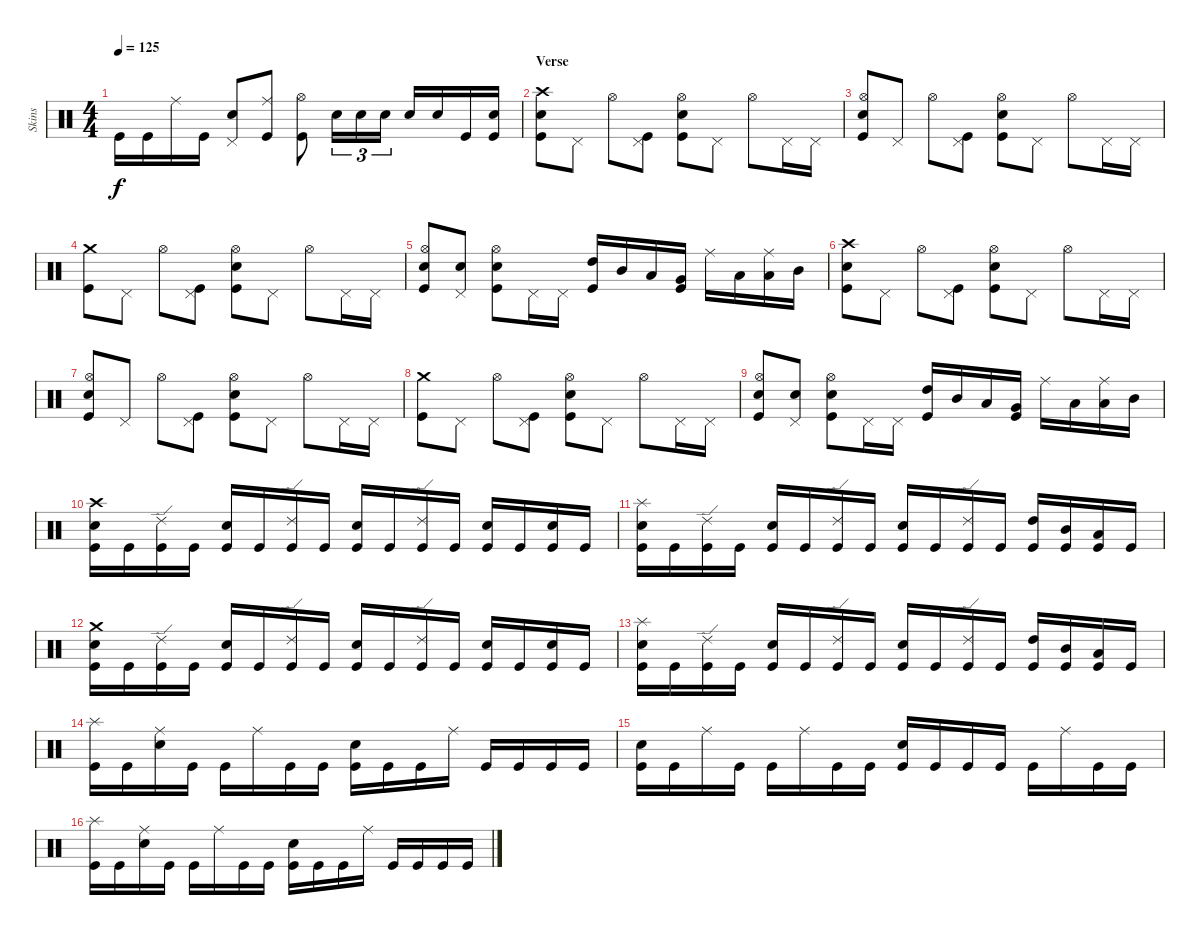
\track ("Skins" "Skins") {instrument percussion}
\staff {score}
\articulation defaults
\ts (4 4)
\tempo 125
\clef neutral
\ks c "Kick (hit)".16{dy f} "Kick (hit)".16 "Ride (middle)".16 "Kick (hit)".16
("Pedal Hi-Hat (hit)" "Electric Snare (hit)").8 ("Ride (middle)" "Kick (hit)").8 ("Hi-Hat (open)" "Kick (hit)").8 "Electric Snare (hit)".16{tu (3 2)} "Electric Snare (hit)".16{tu (3 2)} "Electric Snare (hit)".16{tu (3 2)} "Snare (hit) 2".16 "Snare (hit) 2".16 "Kick (hit)".16 ("Snare (hit) 2" "Kick (hit)").16 |
\section ("" "Verse")
("Crash high (hit)" "Snare (hit) 2" "Kick (hit)").8 "Pedal Hi-Hat (hit)".8 "Hi-Hat (open)".8 ("Pedal Hi-Hat (hit)" "Kick (hit)").8 ("Hi-Hat (open)" "Electric Snare (hit)" "Kick (hit)").8 "Pedal Hi-Hat (hit)".8 "Hi-Hat (open)".8 "Pedal Hi-Hat (hit)".16 "Pedal Hi-Hat (hit)".16 |
("Hi-Hat (open)" "Snare (hit) 2" "Kick (hit)").8 "Pedal Hi-Hat (hit)".8 "Hi-Hat (open)".8 ("Pedal Hi-Hat (hit)" "Kick (hit)").8 ("Hi-Hat (open)" "Electric Snare (hit)" "Kick (hit)").8 "Pedal Hi-Hat (hit)".8 "Hi-Hat (open)".8 "Pedal Hi-Hat (hit)".16 "Pedal Hi-Hat (hit)".16 |
("Crash medium (hit)" "Kick (hit)").8 "Pedal Hi-Hat (hit)".8 "Hi-Hat (open)".8 ("Pedal Hi-Hat (hit)" "Kick (hit)").8 ("Hi-Hat (open)" "Electric Snare (hit)" "Kick (hit)").8 "Pedal Hi-Hat (hit)".8 "Hi-Hat (open)".8 "Pedal Hi-Hat (hit)".16 "Pedal Hi-Hat (hit)".16 |
("Hi-Hat (open)" "Snare (hit) 2" "Kick (hit)").8 ("Pedal Hi-Hat (hit)" "Snare (hit) 2").8 ("Hi-Hat (open)" "Electric Snare (hit)" "Kick (hit)").8 "Pedal Hi-Hat (hit)".16 "Pedal Hi-Hat (hit)".16 ("High Tom (hit)" "Kick (hit)").16 "Mid Tom (hit)".16 "Low Tom (hit)".16 ("Very Low Tom (hit)" "Kick (hit)").16 "Ride (middle)".16 "Low Floor Tom (hit)".16 ("Ride (middle)" "Low Tom (hit)").16 "Mid Tom (hit)".16 |
("Crash high (hit)" "Snare (hit) 2" "Kick (hit)").8 "Pedal Hi-Hat (hit)".8 "Hi-Hat (open)".8 ("Pedal Hi-Hat (hit)" "Kick (hit)").8 ("Hi-Hat (open)" "Electric Snare (hit)" "Kick (hit)").8 "Pedal Hi-Hat (hit)".8 "Hi-Hat (open)".8 "Pedal Hi-Hat (hit)".16 "Pedal Hi-Hat (hit)".16 |
("Hi-Hat (open)" "Snare (hit) 2" "Kick (hit)").8 "Pedal Hi-Hat (hit)".8 "Hi-Hat (open)".8 ("Pedal Hi-Hat (hit)" "Kick (hit)").8 ("Hi-Hat (open)" "Electric Snare (hit)" "Kick (hit)").8 "Pedal Hi-Hat (hit)".8 "Hi-Hat (open)".8 "Pedal Hi-Hat (hit)".16 "Pedal Hi-Hat (hit)".16 |
("Crash medium (hit)" "Kick (hit)").8 "Pedal Hi-Hat (hit)".8 "Hi-Hat (open)".8 ("Pedal Hi-Hat (hit)" "Kick (hit)").8 ("Hi-Hat (open)" "Electric Snare (hit)" "Kick (hit)").8 "Pedal Hi-Hat (hit)".8 "Hi-Hat (open)".8 "Pedal Hi-Hat (hit)".16 "Pedal Hi-Hat (hit)".16 |
("Hi-Hat (open)" "Snare (hit) 2" "Kick (hit)").8 ("Pedal Hi-Hat (hit)" "Snare (hit) 2").8 ("Hi-Hat (open)" "Electric Snare (hit)" "Kick (hit)").8 "Pedal Hi-Hat (hit)".16 "Pedal Hi-Hat (hit)".16 ("High Tom (hit)" "Kick (hit)").16 "Mid Tom (hit)".16 "Low Tom (hit)".16 ("Very Low Tom (hit)" "Kick (hit)").16 "Ride (middle)".16 "Low Floor Tom (hit)".16 ("Ride (middle)" "Low Tom (hit)").16 "Mid Tom (hit)".16 |
("Crash high (hit)" "Electric Snare (hit)" "Kick (hit)").16 "Kick (hit)".16 ("Ride (edge) 2" "Kick (hit)").16 "Kick (hit)".16 ("Electric Snare (hit)" "Kick (hit)").16 "Kick (hit)".16 ("Ride (edge) 2" "Kick (hit)").16 "Kick (hit)".16 ("Electric Snare (hit)" "Kick (hit)").16 "Kick (hit)".16 ("Ride (edge) 2" "Kick (hit)").16 "Kick (hit)".16 ("Snare (hit) 2" "Kick (hit)").16 "Kick (hit)".16 ("Snare (hit) 2" "Kick (hit)").16 "Kick (hit)".16 |
("Splash (hit)" "Electric Snare (hit)" "Kick (hit)").16 "Kick (hit)".16 ("Ride (edge) 2" "Kick (hit)").16 "Kick (hit)".16 ("Electric Snare (hit)" "Kick (hit)").16 "Kick (hit)".16 ("Ride (edge) 2" "Kick (hit)").16 "Kick (hit)".16 ("Electric Snare (hit)" "Kick (hit)").16 "Kick (hit)".16 ("Ride (edge) 2" "Kick (hit)").16 "Kick (hit)".16 ("High Tom (hit)" "Kick (hit)").16 ("Mid Tom (hit)" "Kick (hit)").16 ("Low Tom (hit)" "Kick (hit)").16 "Kick (hit)".16 |
("Crash medium (hit)" "Electric Snare (hit)" "Kick (hit)").16 "Kick (hit)".16 ("Ride (edge) 2" "Kick (hit)").16 "Kick (hit)".16 ("Electric Snare (hit)" "Kick (hit)").16 "Kick (hit)".16 ("Ride (edge) 2" "Kick (hit)").16 "Kick (hit)".16 ("Electric Snare (hit)" "Kick (hit)").16 "Kick (hit)".16 ("Ride (edge) 2" "Kick (hit)").16 "Kick (hit)".16 ("Snare (hit) 2" "Kick (hit)").16 "Kick (hit)".16 ("Snare (hit) 2" "Kick (hit)").16 "Kick (hit)".16 |
("Splash (hit)" "Electric Snare (hit)" "Kick (hit)").16 "Kick (hit)".16 ("Ride (edge) 2" "Kick (hit)").16 "Kick (hit)".16 ("Electric Snare (hit)" "Kick (hit)").16 "Kick (hit)".16 ("Ride (edge) 2" "Kick (hit)").16 "Kick (hit)".16 ("Electric Snare (hit)" "Kick (hit)").16 "Kick (hit)".16 ("Ride (edge) 2" "Kick (hit)").16 "Kick (hit)".16 ("High Tom (hit)" "Kick (hit)").16 ("Mid Tom (hit)" "Kick (hit)").16 ("Low Tom (hit)" "Kick (hit)").16 "Kick (hit)".16 |
("Splash (hit)" "Kick (hit)").16 "Kick (hit)".16 ("Ride (middle)" "Electric Snare (hit)").16 "Kick (hit)".16 "Kick (hit)".16 "Ride (middle)".16 "Kick (hit)".16 "Kick (hit)".16 ("Electric Snare (hit)" "Kick (hit)").16 "Kick (hit)".16 "Kick (hit)".16 "Ride (middle)".16 "Kick (hit)".16 "Kick (hit)".16 "Kick (hit)".16 "Kick (hit)".16 |
("Electric Snare (hit)" "Kick (hit)").16 "Kick (hit)".16 "Ride (middle)".16 "Kick (hit)".16 "Kick (hit)".16 "Ride (middle)".16 "Kick (hit)".16 "Kick (hit)".16 ("Electric Snare (hit)" "Kick (hit)").16 "Kick (hit)".16 "Kick (hit)".16 "Kick (hit)".16 "Kick (hit)".16 "Ride (middle)".16 "Kick (hit)".16 "Kick (hit)".16 |
("Splash (hit)" "Kick (hit)").16 "Kick (hit)".16 ("Ride (middle)" "Electric Snare (hit)").16 "Kick (hit)".16 "Kick (hit)".16 "Ride (middle)".16 "Kick (hit)".16 "Kick (hit)".16 ("Electric Snare (hit)" "Kick (hit)").16 "Kick (hit)".16 "Kick (hit)".16 "Ride (middle)".16 "Kick (hit)".16 "Kick (hit)".16 "Kick (hit)".16 "Kick (hit)".16
